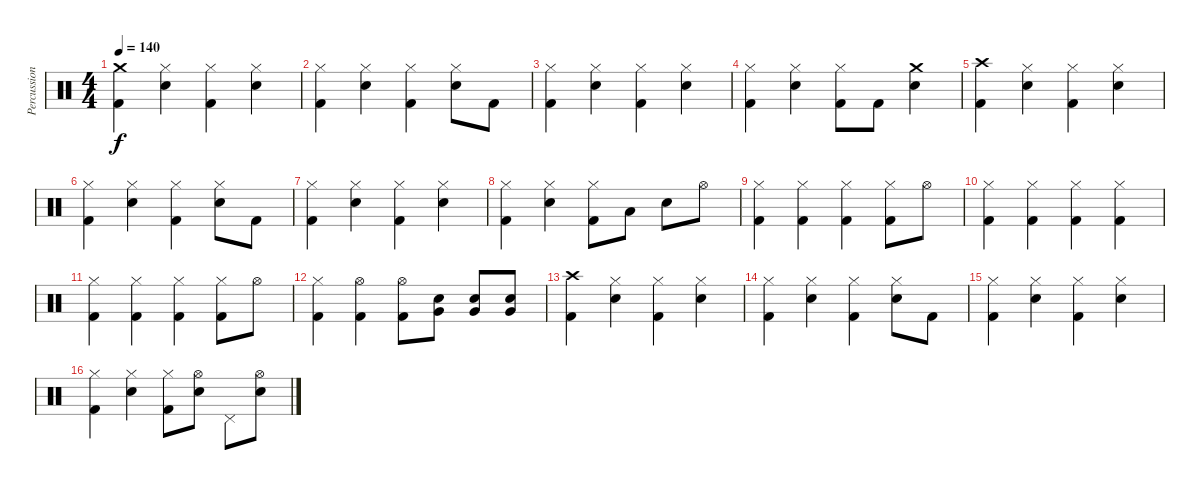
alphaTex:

\track ("Percussions" "Percussion") {instrument percussion}
\staff {score}
\articulation defaults
\ts (4 4)
\tempo 140
\clef neutral
\ks c
("Crash medium (hit)" "Kick (hit) 2").4{dy f} ("Hi-Hat (closed)" "Electric Snare (hit)").4 ("Hi-Hat (closed)" "Kick (hit) 2").4 ("Hi-Hat (closed)" "Electric Snare (hit)").4 |
("Hi-Hat (closed)" "Kick (hit) 2").4 ("Hi-Hat (closed)" "Electric Snare (hit)").4 ("Hi-Hat (closed)" "Kick (hit) 2").4 ("Hi-Hat (closed)" "Electric Snare (hit)").8 "Kick (hit) 2".8 |
("Hi-Hat (closed)" "Kick (hit) 2").4 ("Hi-Hat (closed)" "Electric Snare (hit)").4 ("Hi-Hat (closed)" "Kick (hit) 2").4 ("Hi-Hat (closed)" "Electric Snare (hit)").4 |
("Hi-Hat (closed)" "Kick (hit) 2").4 ("Hi-Hat (closed)" "Electric Snare (hit)").4 ("Hi-Hat (closed)" "Kick (hit) 2").8 "Kick (hit) 2".8 ("Crash medium (hit)" "Electric Snare (hit)").4 |
("Crash high (hit)" "Kick (hit) 2").4 ("Hi-Hat (closed)" "Electric Snare (hit)").4 ("Hi-Hat (closed)" "Kick (hit) 2").4 ("Hi-Hat (closed)" "Electric Snare (hit)").4 |
("Hi-Hat (closed)" "Kick (hit) 2").4 ("Hi-Hat (closed)" "Electric Snare (hit)").4 ("Hi-Hat (closed)" "Kick (hit) 2").4 ("Hi-Hat (closed)" "Electric Snare (hit)").8 "Kick (hit) 2".8 |
("Hi-Hat (closed)" "Kick (hit) 2").4 ("Hi-Hat (closed)" "Electric Snare (hit)").4 ("Hi-Hat (closed)" "Kick (hit) 2").4 ("Hi-Hat (closed)" "Electric Snare (hit)").4 |
("Hi-Hat (closed)" "Kick (hit) 2").4 ("Hi-Hat (closed)" "Electric Snare (hit)").4 ("Hi-Hat (closed)" "Kick (hit) 2").8 "Low Tom (hit)".8 "Electric Snare (hit)".8 "Hi-Hat (open)".8 |
("Hi-Hat (closed)" "Kick (hit) 2").4 ("Hi-Hat (closed)" "Kick (hit) 2").4 ("Hi-Hat (closed)" "Kick (hit) 2").4 ("Hi-Hat (closed)" "Kick (hit) 2").8 "Hi-Hat (open)".8 |
("Hi-Hat (closed)" "Kick (hit) 2").4 ("Hi-Hat (closed)" "Kick (hit) 2").4 ("Hi-Hat (closed)" "Kick (hit) 2").4 ("Hi-Hat (closed)" "Kick (hit) 2").4 |
("Hi-Hat (closed)" "Kick (hit) 2").4 ("Hi-Hat (closed)" "Kick (hit) 2").4 ("Hi-Hat (closed)" "Kick (hit) 2").4 ("Hi-Hat (closed)" "Kick (hit) 2").8 "Hi-Hat (open)".8 |
("Hi-Hat (closed)" "Kick (hit) 2").4 ("Hi-Hat (open)" "Kick (hit) 2").4 ("Hi-Hat (open)" "Kick (hit) 2").8 ("Electric Snare (hit)" "Very Low Tom (hit)").8 ("Electric Snare (hit)" "Very Low Tom (hit)").8 ("Electric Snare (hit)" "Very Low Tom (hit)").8 |
("Crash high (hit)" "Kick (hit) 2").4 ("Hi-Hat (closed)" "Electric Snare (hit)").4 ("Hi-Hat (closed)" "Kick (hit) 2").4 ("Hi-Hat (closed)" "Electric Snare (hit)").4 |
("Hi-Hat (closed)" "Kick (hit) 2").4 ("Hi-Hat (closed)" "Electric Snare (hit)").4 ("Hi-Hat (closed)" "Kick (hit) 2").4 ("Hi-Hat (closed)" "Electric Snare (hit)").8 "Kick (hit) 2".8 |
("Hi-Hat (closed)" "Kick (hit) 2").4 ("Hi-Hat (closed)" "Electric Snare (hit)").4 ("Hi-Hat (closed)" "Kick (hit) 2").4 ("Hi-Hat (closed)" "Electric Snare (hit)").4 |
("Hi-Hat (closed)" "Kick (hit) 2").4 ("Hi-Hat (closed)" "Electric Snare (hit)").4 ("Hi-Hat (closed)" "Kick (hit) 2").8 ("Hi-Hat (open)" "Electric Snare (hit)").8 "Pedal Hi-Hat (hit)".8 ("Hi-Hat (open)" "Electric Snare (hit)").8
